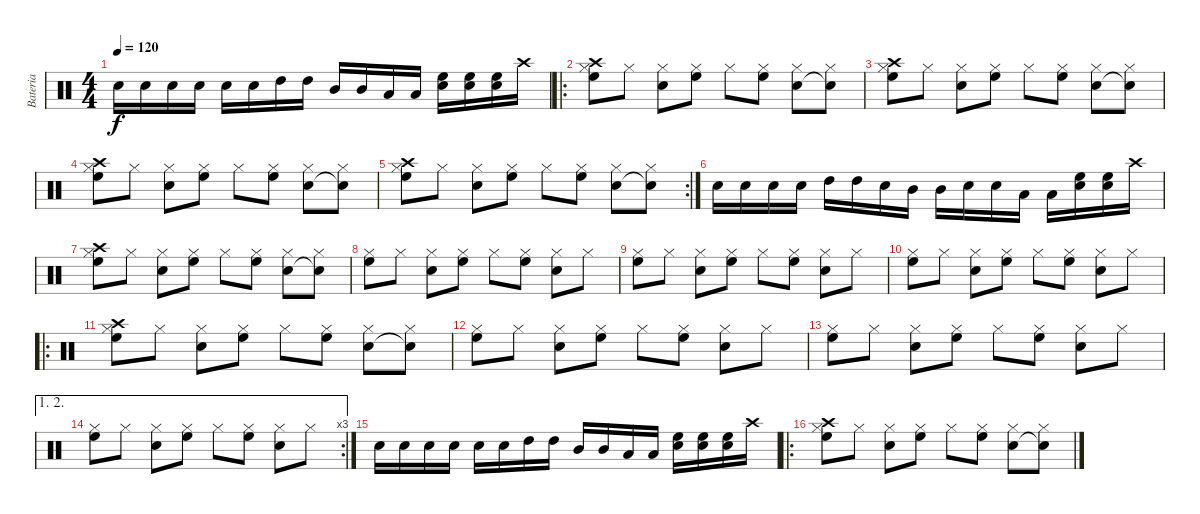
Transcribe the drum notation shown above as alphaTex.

\track ("Bateria" "Bateria") {instrument percussion}
\staff {score}
\articulation defaults
\ts (4 4)
\tempo 120
\clef neutral
\ks c "Snare (hit) 2".16{dy f} "Snare (hit) 2".16 "Snare (hit) 2".16 "Snare (hit) 2".16 "Snare (hit) 2".16 "Snare (hit) 2".16 "High Tom (hit)".16 "High Tom (hit)".16 "Mid Tom (hit)".16 "Mid Tom (hit)".16 "Low Tom (hit)".16 "Low Tom (hit)".16
("Snare (hit) 2" "High Floor Tom (hit)").16 ("Snare (hit) 2" "High Floor Tom (hit)").16 ("Snare (hit) 2" "High Floor Tom (hit)").16 "Crash high (hit)".16 |
\ro
("Hi-Hat (closed)" "Crash high (hit)" "High Floor Tom (hit)").8 "Hi-Hat (closed)".8 ("Hi-Hat (closed)" "Snare (hit) 2").8 ("Hi-Hat (closed)" "High Floor Tom (hit)").8 "Hi-Hat (closed)".8 ("Hi-Hat (closed)" "High Floor Tom (hit)").8 ("Hi-Hat (closed)" "Snare (hit) 2").8 ("Hi-Hat (closed)" "Snare (hit)"{t}).8 |
("Hi-Hat (closed)" "Crash high (hit)" "High Floor Tom (hit)").8 "Hi-Hat (closed)".8 ("Hi-Hat (closed)" "Snare (hit) 2").8 ("Hi-Hat (closed)" "High Floor Tom (hit)").8 "Hi-Hat (closed)".8 ("Hi-Hat (closed)" "High Floor Tom (hit)").8 ("Hi-Hat (closed)" "Snare (hit) 2").8 ("Hi-Hat (closed)" "Snare (hit)"{t}).8 |
("Hi-Hat (closed)" "Crash high (hit)" "High Floor Tom (hit)").8 "Hi-Hat (closed)".8 ("Hi-Hat (closed)" "Snare (hit) 2").8 ("Hi-Hat (closed)" "High Floor Tom (hit)").8 "Hi-Hat (closed)".8 ("Hi-Hat (closed)" "High Floor Tom (hit)").8 ("Hi-Hat (closed)" "Snare (hit) 2").8 ("Hi-Hat (closed)" "Snare (hit)"{t}).8 |
\rc 2
("Hi-Hat (closed)" "Crash high (hit)" "High Floor Tom (hit)").8 "Hi-Hat (closed)".8 ("Hi-Hat (closed)" "Snare (hit) 2").8 ("Hi-Hat (closed)" "High Floor Tom (hit)").8 "Hi-Hat (closed)".8 ("Hi-Hat (closed)" "High Floor Tom (hit)").8 ("Hi-Hat (closed)" "Snare (hit) 2").8 ("Hi-Hat (closed)" "Snare (hit)"{t}).8 |
"Snare (hit) 2".16 "Snare (hit) 2".16 "Snare (hit) 2".16 "Snare (hit) 2".16 "High Tom (hit)".16 "High Tom (hit)".16 "Snare (hit) 2".16 "Mid Tom (hit)".16 "Mid Tom (hit)".16 "Snare (hit) 2".16 "Snare (hit) 2".16 "Low Tom (hit)".16 "Low Tom (hit)".16 ("Snare (hit) 2" "High Floor Tom (hit)").16 ("Snare (hit) 2" "High Floor Tom (hit)").16 "Crash high (hit)".16 |
("Hi-Hat (closed)" "Crash high (hit)" "High Floor Tom (hit)").8 "Hi-Hat (closed)".8 ("Hi-Hat (closed)" "Snare (hit) 2").8 ("Hi-Hat (closed)" "High Floor Tom (hit)").8 "Hi-Hat (closed)".8 ("Hi-Hat (closed)" "High Floor Tom (hit)").8 ("Hi-Hat (closed)" "Snare (hit) 2").8 ("Hi-Hat (closed)" "Snare (hit)"{t}).8 |
("Hi-Hat (closed)" "High Floor Tom (hit)").8 "Hi-Hat (closed)".8 ("Hi-Hat (closed)" "Snare (hit) 2").8 ("Hi-Hat (closed)" "High Floor Tom (hit)").8 "Hi-Hat (closed)".8 ("Hi-Hat (closed)" "High Floor Tom (hit)").8 ("Hi-Hat (closed)" "Snare (hit) 2").8 "Hi-Hat (closed)".8 |
("Hi-Hat (closed)" "High Floor Tom (hit)").8 "Hi-Hat (closed)".8 ("Hi-Hat (closed)" "Snare (hit) 2").8 ("Hi-Hat (closed)" "High Floor Tom (hit)").8 "Hi-Hat (closed)".8 ("Hi-Hat (closed)" "High Floor Tom (hit)").8 ("Hi-Hat (closed)" "Snare (hit) 2").8 "Hi-Hat (closed)".8 |
("Hi-Hat (closed)" "High Floor Tom (hit)").8 "Hi-Hat (closed)".8 ("Hi-Hat (closed)" "Snare (hit) 2").8 ("Hi-Hat (closed)" "High Floor Tom (hit)").8 "Hi-Hat (closed)".8 ("Hi-Hat (closed)" "High Floor Tom (hit)").8 ("Hi-Hat (closed)" "Snare (hit) 2").8 "Hi-Hat (closed)".8 |
\ro
("Hi-Hat (closed)" "Crash high (hit)" "High Floor Tom (hit)").8 "Hi-Hat (closed)".8 ("Hi-Hat (closed)" "Snare (hit) 2").8 ("Hi-Hat (closed)" "High Floor Tom (hit)").8 "Hi-Hat (closed)".8 ("Hi-Hat (closed)" "High Floor Tom (hit)").8 ("Hi-Hat (closed)" "Snare (hit) 2").8 ("Hi-Hat (closed)" "Snare (hit)"{t}).8 |
("Hi-Hat (closed)" "High Floor Tom (hit)").8 "Hi-Hat (closed)".8 ("Hi-Hat (closed)" "Snare (hit) 2").8 ("Hi-Hat (closed)" "High Floor Tom (hit)").8 "Hi-Hat (closed)".8 ("Hi-Hat (closed)" "High Floor Tom (hit)").8 ("Hi-Hat (closed)" "Snare (hit) 2").8 "Hi-Hat (closed)".8 |
("Hi-Hat (closed)" "High Floor Tom (hit)").8 "Hi-Hat (closed)".8 ("Hi-Hat (closed)" "Snare (hit) 2").8 ("Hi-Hat (closed)" "High Floor Tom (hit)").8 "Hi-Hat (closed)".8 ("Hi-Hat (closed)" "High Floor Tom (hit)").8 ("Hi-Hat (closed)" "Snare (hit) 2").8 "Hi-Hat (closed)".8 |
\ae (1 2)
\rc 3
("Hi-Hat (closed)" "High Floor Tom (hit)").8 "Hi-Hat (closed)".8 ("Hi-Hat (closed)" "Snare (hit) 2").8 ("Hi-Hat (closed)" "High Floor Tom (hit)").8 "Hi-Hat (closed)".8 ("Hi-Hat (closed)" "High Floor Tom (hit)").8 ("Hi-Hat (closed)" "Snare (hit) 2").8 "Hi-Hat (closed)".8 |
"Snare (hit) 2".16 "Snare (hit) 2".16 "Snare (hit) 2".16 "Snare (hit) 2".16 "Snare (hit) 2".16 "Snare (hit) 2".16 "High Tom (hit)".16 "High Tom (hit)".16 "Mid Tom (hit)".16 "Mid Tom (hit)".16 "Low Tom (hit)".16 "Low Tom (hit)".16 ("Snare (hit) 2" "High Floor Tom (hit)").16 ("Snare (hit) 2" "High Floor Tom (hit)").16 ("Snare (hit) 2" "High Floor Tom (hit)").16 "Crash high (hit)".16 |
\ro
("Hi-Hat (closed)" "Crash high (hit)" "High Floor Tom (hit)").8 "Hi-Hat (closed)".8 ("Hi-Hat (closed)" "Snare (hit) 2").8 ("Hi-Hat (closed)" "High Floor Tom (hit)").8 "Hi-Hat (closed)".8 ("Hi-Hat (closed)" "High Floor Tom (hit)").8 ("Hi-Hat (closed)" "Snare (hit) 2").8 ("Hi-Hat (closed)" "Snare (hit)"{t}).8
